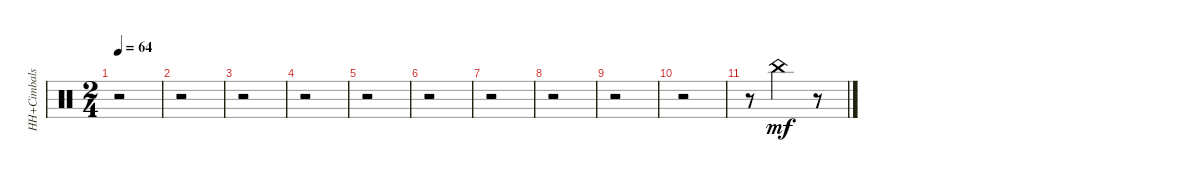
\track ("HH+Cimbals" "HH+Cimbals") {instrument percussion}
\staff {score}
\articulation defaults
\ts (2 4)
\tempo 64
\clef neutral
\ks c
r.2{dy mf} |
r.2 |
r.2 |
r.2 |
r.2 |
r.2 |
r.2 |
r.2 |
r.2 |
r.2 |
r.8 "China (hit)".4 r.8
